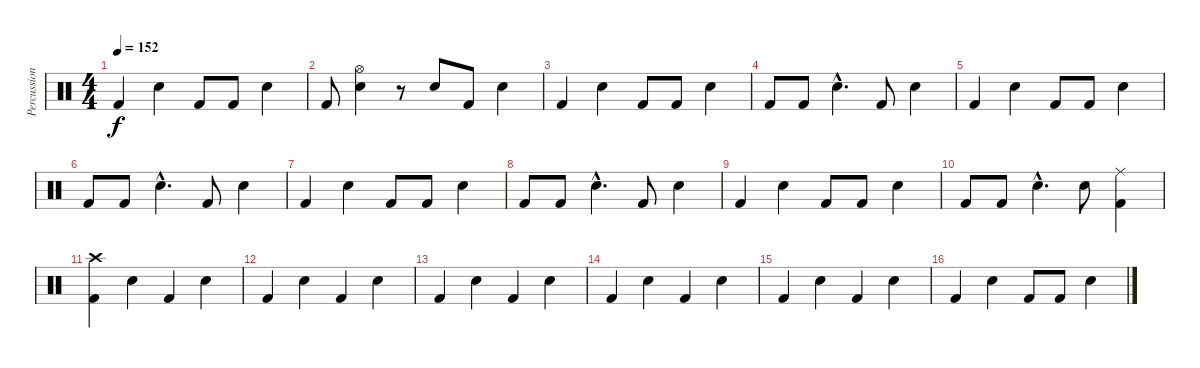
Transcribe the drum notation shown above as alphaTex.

\track ("Percussion" "Percussion") {instrument percussion}
\staff {score}
\articulation defaults
\ts (4 4)
\tempo 152
\clef neutral
\ks c "Kick (hit) 2".4{dy f} "Electric Snare (hit)".4 "Kick (hit) 2".8 "Kick (hit) 2".8 "Electric Snare (hit)".4
|
"Kick (hit) 2".8 ("Hi-Hat (open)" "Electric Snare (hit)").4 r.8 "Electric Snare (hit)".8 "Kick (hit) 2".8 "Electric Snare (hit)".4 |
"Kick (hit) 2".4 "Snare (hit) 2".4 "Kick (hit) 2".8 "Kick (hit) 2".8 "Snare (hit) 2".4 |
"Kick (hit) 2".8 "Kick (hit) 2".8 "Snare (hit) 2"{hac}.4{d} "Kick (hit) 2".8 "Snare (hit) 2".4 |
"Kick (hit) 2".4 "Snare (hit) 2".4 "Kick (hit) 2".8 "Kick (hit) 2".8 "Snare (hit) 2".4 |
"Kick (hit) 2".8 "Kick (hit) 2".8 "Snare (hit) 2"{hac}.4{d} "Kick (hit) 2".8 "Snare (hit) 2".4 |
"Kick (hit) 2".4 "Snare (hit) 2".4 "Kick (hit) 2".8 "Kick (hit) 2".8 "Snare (hit) 2".4 |
"Kick (hit) 2".8 "Kick (hit) 2".8 "Snare (hit) 2"{hac}.4{d} "Kick (hit) 2".8 "Snare (hit) 2".4 |
"Kick (hit) 2".4 "Snare (hit) 2".4 "Kick (hit) 2".8 "Kick (hit) 2".8 "Snare (hit) 2".4 |
"Kick (hit) 2".8 "Kick (hit) 2".8 "Snare (hit) 2"{hac}.4{d} "Snare (hit) 2".8 ("Kick (hit) 2" "Ride (middle)").4 |
("Kick (hit) 2" "Crash high (hit)").4 "Snare (hit) 2".4 "Kick (hit) 2".4 "Snare (hit) 2".4 |
"Kick (hit) 2".4 "Snare (hit) 2".4 "Kick (hit) 2".4 "Snare (hit) 2".4 |
"Kick (hit) 2".4 "Snare (hit) 2".4 "Kick (hit) 2".4 "Snare (hit) 2".4 |
"Kick (hit) 2".4 "Snare (hit) 2".4 "Kick (hit) 2".4 "Snare (hit) 2".4 |
"Kick (hit) 2".4 "Snare (hit) 2".4 "Kick (hit) 2".4 "Snare (hit) 2".4 |
"Kick (hit) 2".4 "Snare (hit) 2".4 "Kick (hit) 2".8 "Kick (hit) 2".8 "Snare (hit) 2".4
